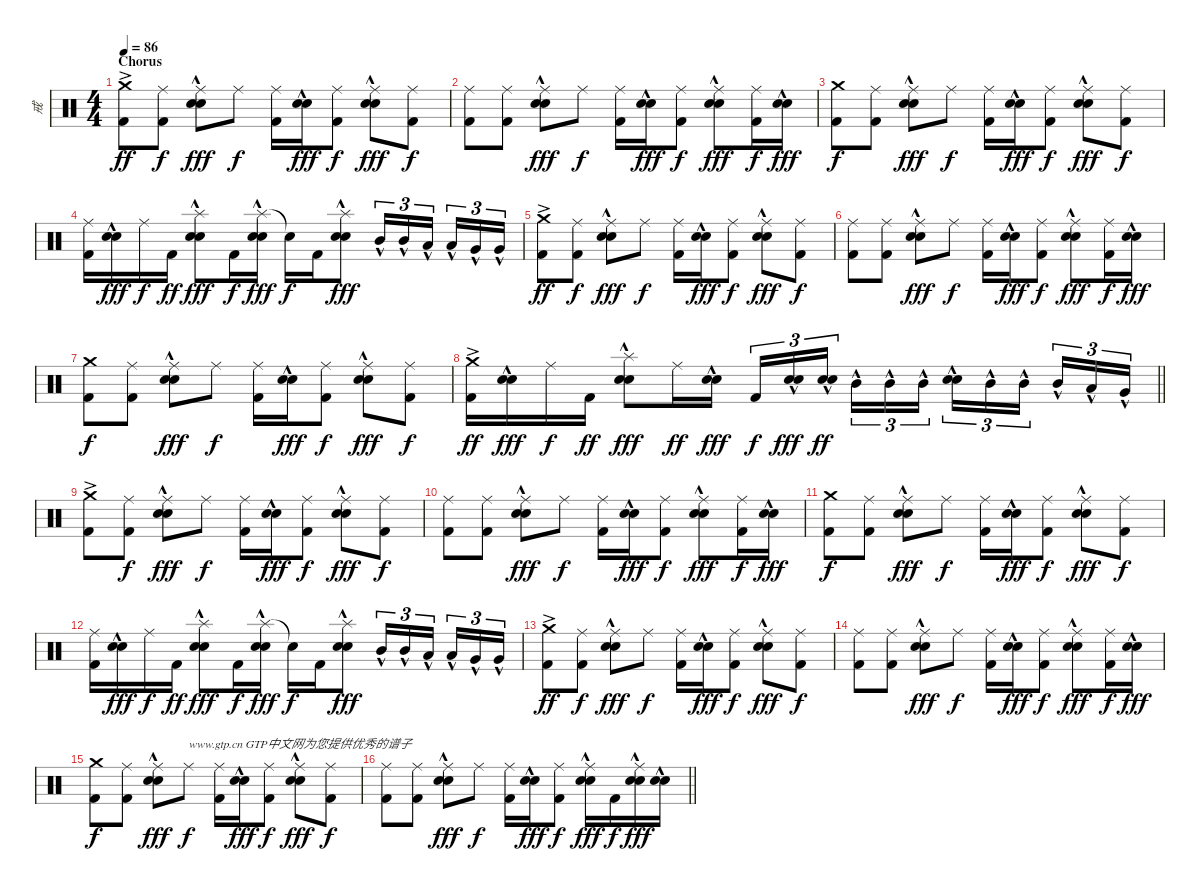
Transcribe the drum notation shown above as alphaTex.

\track ("戒" "戒") {instrument percussion}
\staff {score}
\articulation defaults
\ts (4 4)
\section ("" "Chorus")
\tempo 86
\clef neutral
\ks c
("Crash medium (hit)"{ac} "Kick (hit) 2").8{dy ff} ("Ride (middle)" "Kick (hit) 2").8{dy f} ("Ride (middle)" "Electric Snare (hit)"{hac} "Snare (hit) 2"{hac}).8{dy fff} "Ride (middle)".8{dy f} ("Ride (middle)" "Kick (hit) 2").16 ("Electric Snare (hit)"{hac} "Snare (hit) 2"{hac}).16{dy fff} ("Ride (middle)" "Kick (hit) 2").8{dy f} ("Ride (middle)" "Electric Snare (hit)"{hac} "Snare (hit) 2"{hac}).8{dy fff} ("Ride (middle)" "Kick (hit) 2").8{dy f} |
("Ride (middle)" "Kick (hit) 2").8 ("Ride (middle)" "Kick (hit) 2").8 ("Ride (middle)" "Electric Snare (hit)"{hac} "Snare (hit) 2"{hac}).8{dy fff} "Ride (middle)".8{dy f} ("Ride (middle)" "Kick (hit) 2").16 ("Electric Snare (hit)"{hac} "Snare (hit) 2"{hac}).16{dy fff} ("Ride (middle)" "Kick (hit) 2").8{dy f} ("Ride (middle)" "Electric Snare (hit)"{hac} "Snare (hit) 2"{hac}).8{dy fff} ("Ride (middle)" "Kick (hit) 2").16{dy f} ("Electric Snare (hit)"{hac} "Snare (hit) 2"{hac}).16{dy fff} |
("Crash medium (hit)" "Kick (hit) 2").8{dy f} ("Ride (middle)" "Kick (hit) 2").8 ("Ride (middle)" "Electric Snare (hit)"{hac} "Snare (hit) 2"{hac}).8{dy fff} "Ride (middle)".8{dy f} ("Ride (middle)" "Kick (hit) 2").16 ("Electric Snare (hit)"{hac} "Snare (hit) 2"{hac}).16{dy fff} ("Ride (middle)" "Kick (hit) 2").8{dy f} ("Ride (middle)" "Electric Snare (hit)"{hac} "Snare (hit) 2"{hac}).8{dy fff} ("Ride (middle)" "Kick (hit) 2").8{dy f} |
("Ride (middle)" "Kick (hit) 2").16 ("Electric Snare (hit)"{hac} "Snare (hit) 2"{hac}).16{dy fff} "Ride (middle)".16{dy f} "Kick (hit) 2".16{dy ff} ("Splash (hit)"{hac} "Electric Snare (hit)"{hac} "Snare (hit) 2"{hac}).8{dy fff} "Kick (hit) 2".16{dy f} ("Splash (hit)"{hac} "Electric Snare (hit)"{hac} "Snare (hit) 2"{hac}).16{dy fff} "Snare (hit)"{t}.16{dy f} "Kick (hit) 2".16 ("Splash (hit)"{hac} "Electric Snare (hit)"{hac} "Snare (hit) 2"{hac}).8{dy fff} "Mid Tom (hit)"{hac}.16{tu (3 2)} "Mid Tom (hit)"{hac}.16{tu (3 2)} "Low Tom (hit)"{hac}.16{tu (3 2) beam splitsecondary} "Low Tom (hit)"{hac}.16{tu (3 2)} "Very Low Tom (hit)"{hac}.16{tu (3 2)} "Very Low Tom (hit)"{hac}.16{tu (3 2)} |
("Crash medium (hit)"{ac} "Kick (hit) 2").8{dy ff} ("Ride (middle)" "Kick (hit) 2").8{dy f} ("Ride (middle)" "Electric Snare (hit)"{hac} "Snare (hit) 2"{hac}).8{dy fff} "Ride (middle)".8{dy f} ("Ride (middle)" "Kick (hit) 2").16 ("Electric Snare (hit)"{hac} "Snare (hit) 2"{hac}).16{dy fff} ("Ride (middle)" "Kick (hit) 2").8{dy f} ("Ride (middle)" "Electric Snare (hit)"{hac} "Snare (hit) 2"{hac}).8{dy fff} ("Ride (middle)" "Kick (hit) 2").8{dy f} |
("Ride (middle)" "Kick (hit) 2").8 ("Ride (middle)" "Kick (hit) 2").8 ("Ride (middle)" "Electric Snare (hit)"{hac} "Snare (hit) 2"{hac}).8{dy fff} "Ride (middle)".8{dy f} ("Ride (middle)" "Kick (hit) 2").16 ("Electric Snare (hit)"{hac} "Snare (hit) 2"{hac}).16{dy fff} ("Ride (middle)" "Kick (hit) 2").8{dy f} ("Ride (middle)" "Electric Snare (hit)"{hac} "Snare (hit) 2"{hac}).8{dy fff} ("Ride (middle)" "Kick (hit) 2").16{dy f} ("Electric Snare (hit)"{hac} "Snare (hit) 2"{hac}).16{dy fff} |
("Crash medium (hit)" "Kick (hit) 2").8{dy f} ("Ride (middle)" "Kick (hit) 2").8 ("Ride (middle)" "Electric Snare (hit)"{hac} "Snare (hit) 2"{hac}).8{dy fff} "Ride (middle)".8{dy f} ("Ride (middle)" "Kick (hit) 2").16 ("Electric Snare (hit)"{hac} "Snare (hit) 2"{hac}).16{dy fff} ("Ride (middle)" "Kick (hit) 2").8{dy f} ("Ride (middle)" "Electric Snare (hit)"{hac} "Snare (hit) 2"{hac}).8{dy fff} ("Ride (middle)" "Kick (hit) 2").8{dy f} |
\barLineRight lightlight
("Crash medium (hit)"{ac} "Kick (hit) 2").16{dy ff} ("Electric Snare (hit)"{hac} "Snare (hit) 2"{hac}).16{dy fff} "Ride (middle)".16{dy f} "Kick (hit) 2".16{dy ff} ("Splash (hit)"{hac} "Electric Snare (hit)"{hac} "Snare (hit) 2"{hac}).8{dy fff} "Ride (middle)".16{dy ff} ("Electric Snare (hit)"{hac} "Snare (hit) 2"{hac}).16{dy fff} "Kick (hit) 2".16{tu (3 2) dy f} ("Electric Snare (hit)"{hac} "Snare (hit) 2"{hac}).16{tu (3 2) dy fff} ("Electric Snare (hit)"{hac} "Snare (hit) 2"{hac}).16{tu (3 2) dy ff beam splitsecondary} "Mid Tom (hit)"{hac}.16{tu (3 2)} "Mid Tom (hit)"{hac}.16{tu (3 2)} "Mid Tom (hit)"{hac}.16{tu (3 2)} ("Electric Snare (hit)"{hac} "Snare (hit) 2"{hac}).16{tu (3 2)} "Mid Tom (hit)"{hac}.16{tu (3 2)} "Mid Tom (hit)"{hac}.16{tu (3 2) beam splitsecondary} "Mid Tom (hit)"{hac}.16{tu (3 2)} "Low Tom (hit)"{hac}.16{tu (3 2)} "Very Low Tom (hit)"{hac}.16{tu (3 2)} |
\section ("" "")
("Crash medium (hit)"{ac} "Kick (hit) 2").8 ("Ride (middle)" "Kick (hit) 2").8{dy f} ("Ride (middle)" "Electric Snare (hit)"{hac} "Snare (hit) 2"{hac}).8{dy fff} "Ride (middle)".8{dy f} ("Ride (middle)" "Kick (hit) 2").16 ("Electric Snare (hit)"{hac} "Snare (hit) 2"{hac}).16{dy fff} ("Ride (middle)" "Kick (hit) 2").8{dy f} ("Ride (middle)" "Electric Snare (hit)"{hac} "Snare (hit) 2"{hac}).8{dy fff} ("Ride (middle)" "Kick (hit) 2").8{dy f} |
("Ride (middle)" "Kick (hit) 2").8 ("Ride (middle)" "Kick (hit) 2").8 ("Ride (middle)" "Electric Snare (hit)"{hac} "Snare (hit) 2"{hac}).8{dy fff} "Ride (middle)".8{dy f} ("Ride (middle)" "Kick (hit) 2").16 ("Electric Snare (hit)"{hac} "Snare (hit) 2"{hac}).16{dy fff} ("Ride (middle)" "Kick (hit) 2").8{dy f} ("Ride (middle)" "Electric Snare (hit)"{hac} "Snare (hit) 2"{hac}).8{dy fff} ("Ride (middle)" "Kick (hit) 2").16{dy f} ("Electric Snare (hit)"{hac} "Snare (hit) 2"{hac}).16{dy fff} |
("Crash medium (hit)" "Kick (hit) 2").8{dy f} ("Ride (middle)" "Kick (hit) 2").8 ("Ride (middle)" "Electric Snare (hit)"{hac} "Snare (hit) 2"{hac}).8{dy fff} "Ride (middle)".8{dy f} ("Ride (middle)" "Kick (hit) 2").16 ("Electric Snare (hit)"{hac} "Snare (hit) 2"{hac}).16{dy fff} ("Ride (middle)" "Kick (hit) 2").8{dy f} ("Ride (middle)" "Electric Snare (hit)"{hac} "Snare (hit) 2"{hac}).8{dy fff} ("Ride (middle)" "Kick (hit) 2").8{dy f} |
("Ride (middle)" "Kick (hit) 2").16 ("Electric Snare (hit)"{hac} "Snare (hit) 2"{hac}).16{dy fff} "Ride (middle)".16{dy f} "Kick (hit) 2".16{dy ff} ("Splash (hit)"{hac} "Electric Snare (hit)"{hac} "Snare (hit) 2"{hac}).8{dy fff} "Kick (hit) 2".16{dy f} ("Splash (hit)"{hac} "Electric Snare (hit)"{hac} "Snare (hit) 2"{hac}).16{dy fff} "Snare (hit)"{t}.16{dy f} "Kick (hit) 2".16 ("Splash (hit)"{hac} "Electric Snare (hit)"{hac} "Snare (hit) 2"{hac}).8{dy fff} "Mid Tom (hit)"{hac}.16{tu (3 2)} "Mid Tom (hit)"{hac}.16{tu (3 2)} "Low Tom (hit)"{hac}.16{tu (3 2) beam splitsecondary} "Low Tom (hit)"{hac}.16{tu (3 2)} "Very Low Tom (hit)"{hac}.16{tu (3 2)} "Very Low Tom (hit)"{hac}.16{tu (3 2)} |
("Crash medium (hit)"{ac} "Kick (hit) 2").8{dy ff} ("Ride (middle)" "Kick (hit) 2").8{dy f} ("Ride (middle)" "Electric Snare (hit)"{hac} "Snare (hit) 2"{hac}).8{dy fff} "Ride (middle)".8{dy f} ("Ride (middle)" "Kick (hit) 2").16 ("Electric Snare (hit)"{hac} "Snare (hit) 2"{hac}).16{dy fff} ("Ride (middle)" "Kick (hit) 2").8{dy f} ("Ride (middle)" "Electric Snare (hit)"{hac} "Snare (hit) 2"{hac}).8{dy fff} ("Ride (middle)" "Kick (hit) 2").8{dy f} |
("Ride (middle)" "Kick (hit) 2").8 ("Ride (middle)" "Kick (hit) 2").8 ("Ride (middle)" "Electric Snare (hit)"{hac} "Snare (hit) 2"{hac}).8{dy fff} "Ride (middle)".8{dy f} ("Ride (middle)" "Kick (hit) 2").16 ("Electric Snare (hit)"{hac} "Snare (hit) 2"{hac}).16{dy fff} ("Ride (middle)" "Kick (hit) 2").8{dy f} ("Ride (middle)" "Electric Snare (hit)"{hac} "Snare (hit) 2"{hac}).8{dy fff} ("Ride (middle)" "Kick (hit) 2").16{dy f} ("Electric Snare (hit)"{hac} "Snare (hit) 2"{hac}).16{dy fff} |
("Crash medium (hit)" "Kick (hit) 2").8{dy f} ("Ride (middle)" "Kick (hit) 2").8 ("Ride (middle)" "Electric Snare (hit)"{hac} "Snare (hit) 2"{hac}).8{dy fff} "Ride (middle)".8{txt "www.gtp.cn GTP中文网为您提供优秀的谱子" dy f} ("Ride (middle)" "Kick (hit) 2").16 ("Electric Snare (hit)"{hac} "Snare (hit) 2"{hac}).16{dy fff} ("Ride (middle)" "Kick (hit) 2").8{dy f} ("Ride (middle)" "Electric Snare (hit)"{hac} "Snare (hit) 2"{hac}).8{dy fff} ("Ride (middle)" "Kick (hit) 2").8{dy f} |
\barLineRight lightlight
("Ride (middle)" "Kick (hit) 2").8 ("Ride (middle)" "Kick (hit) 2").8 ("Ride (middle)" "Electric Snare (hit)"{hac} "Snare (hit) 2"{hac}).8{dy fff} "Ride (middle)".8{dy f} ("Ride (middle)" "Kick (hit) 2").16 ("Electric Snare (hit)"{hac} "Snare (hit) 2"{hac}).16{dy fff} ("Ride (middle)" "Kick (hit) 2").8{dy f} ("Ride (middle)" "Electric Snare (hit)"{hac} "Snare (hit) 2"{hac}).16{dy fff} "Kick (hit) 2".16{dy f} ("Ride (middle)" "Electric Snare (hit)"{hac} "Snare (hit) 2"{hac}).16{dy fff} ("Electric Snare (hit)"{hac} "Snare (hit) 2"{hac}).16
